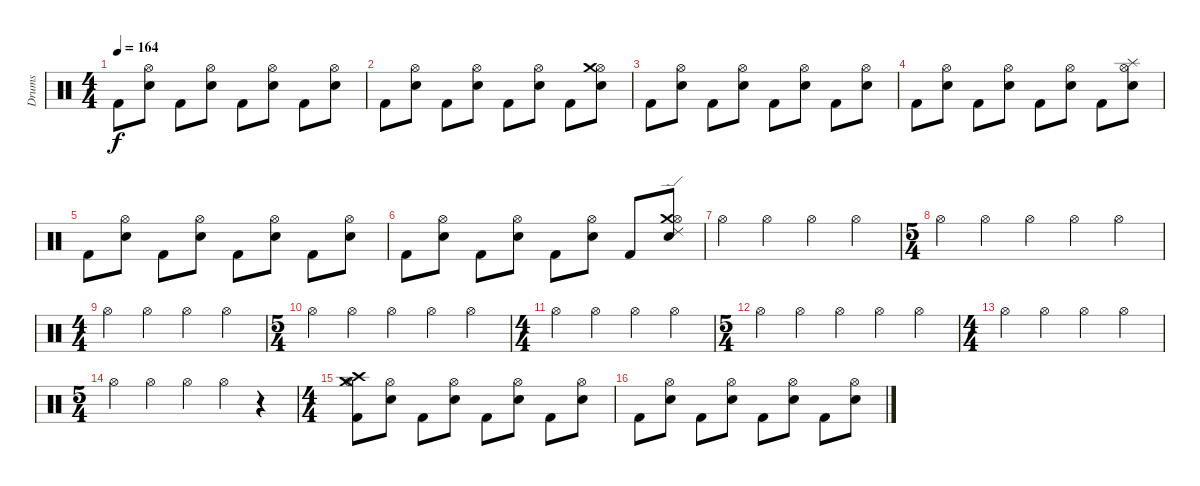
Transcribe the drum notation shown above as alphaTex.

\track ("Drums " "Drums ") {instrument percussion}
\staff {score}
\articulation defaults
\ts (4 4)
\tempo 164
\clef neutral
\ks c "Kick (hit) 2".8{dy f}
("Snare (hit) 2" "Hi-Hat (open)").8 "Kick (hit) 2".8 ("Snare (hit) 2" "Hi-Hat (open)").8 "Kick (hit) 2".8 ("Snare (hit) 2" "Hi-Hat (open)").8 "Kick (hit) 2".8 ("Snare (hit) 2" "Hi-Hat (open)").8 |
"Kick (hit) 2".8 ("Snare (hit) 2" "Hi-Hat (open)").8 "Kick (hit) 2".8 ("Snare (hit) 2" "Hi-Hat (open)").8 "Kick (hit) 2".8 ("Snare (hit) 2" "Hi-Hat (open)").8 "Kick (hit) 2".8 ("Snare (hit) 2" "Hi-Hat (open)" "Crash medium (hit)").8 |
"Kick (hit) 2".8 ("Snare (hit) 2" "Hi-Hat (open)").8 "Kick (hit) 2".8 ("Snare (hit) 2" "Hi-Hat (open)").8 "Kick (hit) 2".8 ("Snare (hit) 2" "Hi-Hat (open)").8 "Kick (hit) 2".8 ("Snare (hit) 2" "Hi-Hat (open)").8 |
"Kick (hit) 2".8 ("Snare (hit) 2" "Hi-Hat (open)").8 "Kick (hit) 2".8 ("Snare (hit) 2" "Hi-Hat (open)").8 "Kick (hit) 2".8 ("Snare (hit) 2" "Hi-Hat (open)").8 "Kick (hit) 2".8 ("Snare (hit) 2" "Hi-Hat (open)" "Splash (hit)").8 |
"Kick (hit) 2".8 ("Snare (hit) 2" "Hi-Hat (open)").8 "Kick (hit) 2".8 ("Snare (hit) 2" "Hi-Hat (open)").8 "Kick (hit) 2".8 ("Snare (hit) 2" "Hi-Hat (open)").8 "Kick (hit) 2".8 ("Snare (hit) 2" "Hi-Hat (open)").8 |
"Kick (hit) 2".8 ("Snare (hit) 2" "Hi-Hat (open)").8 "Kick (hit) 2".8 ("Snare (hit) 2" "Hi-Hat (open)").8 "Kick (hit) 2".8 ("Snare (hit) 2" "Hi-Hat (open)").8 "Kick (hit) 2".8 ("Snare (hit) 2" "Ride (edge) 2" "Crash medium (hit)" "Hi-Hat (open)").8 |
"Hi-Hat (open)".4 "Hi-Hat (open)".4 "Hi-Hat (open)".4 "Hi-Hat (open)".4 |
\ts (5 4)
"Hi-Hat (open)".4 "Hi-Hat (open)".4 "Hi-Hat (open)".4 "Hi-Hat (open)".4 "Hi-Hat (open)".4 |
\ts (4 4)
"Hi-Hat (open)".4 "Hi-Hat (open)".4 "Hi-Hat (open)".4 "Hi-Hat (open)".4 |
\ts (5 4)
"Hi-Hat (open)".4 "Hi-Hat (open)".4 "Hi-Hat (open)".4 "Hi-Hat (open)".4 "Hi-Hat (open)".4 |
\ts (4 4)
"Hi-Hat (open)".4 "Hi-Hat (open)".4 "Hi-Hat (open)".4 "Hi-Hat (open)".4 |
\ts (5 4)
"Hi-Hat (open)".4 "Hi-Hat (open)".4 "Hi-Hat (open)".4 "Hi-Hat (open)".4 "Hi-Hat (open)".4 |
\ts (4 4)
"Hi-Hat (open)".4 "Hi-Hat (open)".4 "Hi-Hat (open)".4 "Hi-Hat (open)".4 |
\ts (5 4)
"Hi-Hat (open)".4 "Hi-Hat (open)".4 "Hi-Hat (open)".4 "Hi-Hat (open)".4 r.4 |
\ts (4 4)
("Crash high (hit)" "Crash medium (hit)" "Kick (hit) 2" "Hi-Hat (open)").8 ("Snare (hit) 2" "Hi-Hat (open)").8 "Kick (hit) 2".8 ("Snare (hit) 2" "Hi-Hat (open)").8 "Kick (hit) 2".8 ("Snare (hit) 2" "Hi-Hat (open)").8 "Kick (hit) 2".8 ("Snare (hit) 2" "Hi-Hat (open)").8 |
"Kick (hit) 2".8 ("Snare (hit) 2" "Hi-Hat (open)").8 "Kick (hit) 2".8 ("Snare (hit) 2" "Hi-Hat (open)").8 "Kick (hit) 2".8 ("Snare (hit) 2" "Hi-Hat (open)").8 "Kick (hit) 2".8 ("Snare (hit) 2" "Hi-Hat (open)").8
